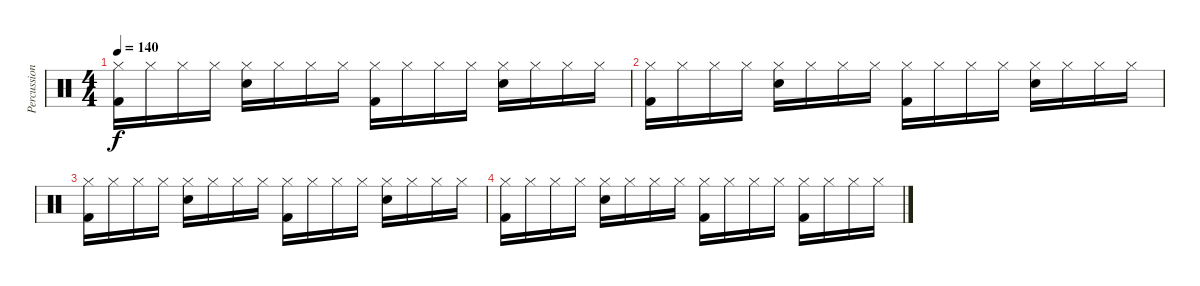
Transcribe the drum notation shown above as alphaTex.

\track ("Percussion" "Percussion") {instrument percussion}
\staff {score}
\articulation defaults
\ts (4 4)
\tempo 140
\clef neutral
\ks c
("Hi-Hat (closed)" "Kick (hit) 2").16{dy f} "Hi-Hat (closed)".16 "Hi-Hat (closed)".16 "Hi-Hat (closed)".16 ("Hi-Hat (closed)" "Snare (hit) 2").16 "Hi-Hat (closed)".16 "Hi-Hat (closed)".16 "Hi-Hat (closed)".16 ("Hi-Hat (closed)" "Kick (hit) 2").16 "Hi-Hat (closed)".16 "Hi-Hat (closed)".16 "Hi-Hat (closed)".16 ("Hi-Hat (closed)" "Snare (hit) 2").16 "Hi-Hat (closed)".16 "Hi-Hat (closed)".16 "Hi-Hat (closed)".16 |
("Hi-Hat (closed)" "Kick (hit) 2").16 "Hi-Hat (closed)".16 "Hi-Hat (closed)".16 "Hi-Hat (closed)".16 ("Hi-Hat (closed)" "Snare (hit) 2").16 "Hi-Hat (closed)".16 "Hi-Hat (closed)".16 "Hi-Hat (closed)".16 ("Hi-Hat (closed)" "Kick (hit) 2").16 "Hi-Hat (closed)".16 "Hi-Hat (closed)".16 "Hi-Hat (closed)".16 ("Hi-Hat (closed)" "Snare (hit) 2").16 "Hi-Hat (closed)".16 "Hi-Hat (closed)".16 "Hi-Hat (closed)".16 |
("Hi-Hat (closed)" "Kick (hit) 2").16 "Hi-Hat (closed)".16 "Hi-Hat (closed)".16 "Hi-Hat (closed)".16 ("Hi-Hat (closed)" "Snare (hit) 2").16 "Hi-Hat (closed)".16 "Hi-Hat (closed)".16 "Hi-Hat (closed)".16 ("Hi-Hat (closed)" "Kick (hit) 2").16 "Hi-Hat (closed)".16 "Hi-Hat (closed)".16 "Hi-Hat (closed)".16 ("Hi-Hat (closed)" "Snare (hit) 2").16 "Hi-Hat (closed)".16 "Hi-Hat (closed)".16 "Hi-Hat (closed)".16 |
("Hi-Hat (closed)" "Kick (hit) 2").16 "Hi-Hat (closed)".16 "Hi-Hat (closed)".16 "Hi-Hat (closed)".16 ("Hi-Hat (closed)" "Snare (hit) 2").16 "Hi-Hat (closed)".16 "Hi-Hat (closed)".16 "Hi-Hat (closed)".16 ("Hi-Hat (closed)" "Kick (hit) 2").16 "Hi-Hat (closed)".16 "Hi-Hat (closed)".16 "Hi-Hat (closed)".16 ("Hi-Hat (closed)" "Kick (hit) 2").16 "Hi-Hat (closed)".16 "Hi-Hat (closed)".16 "Hi-Hat (closed)".16
